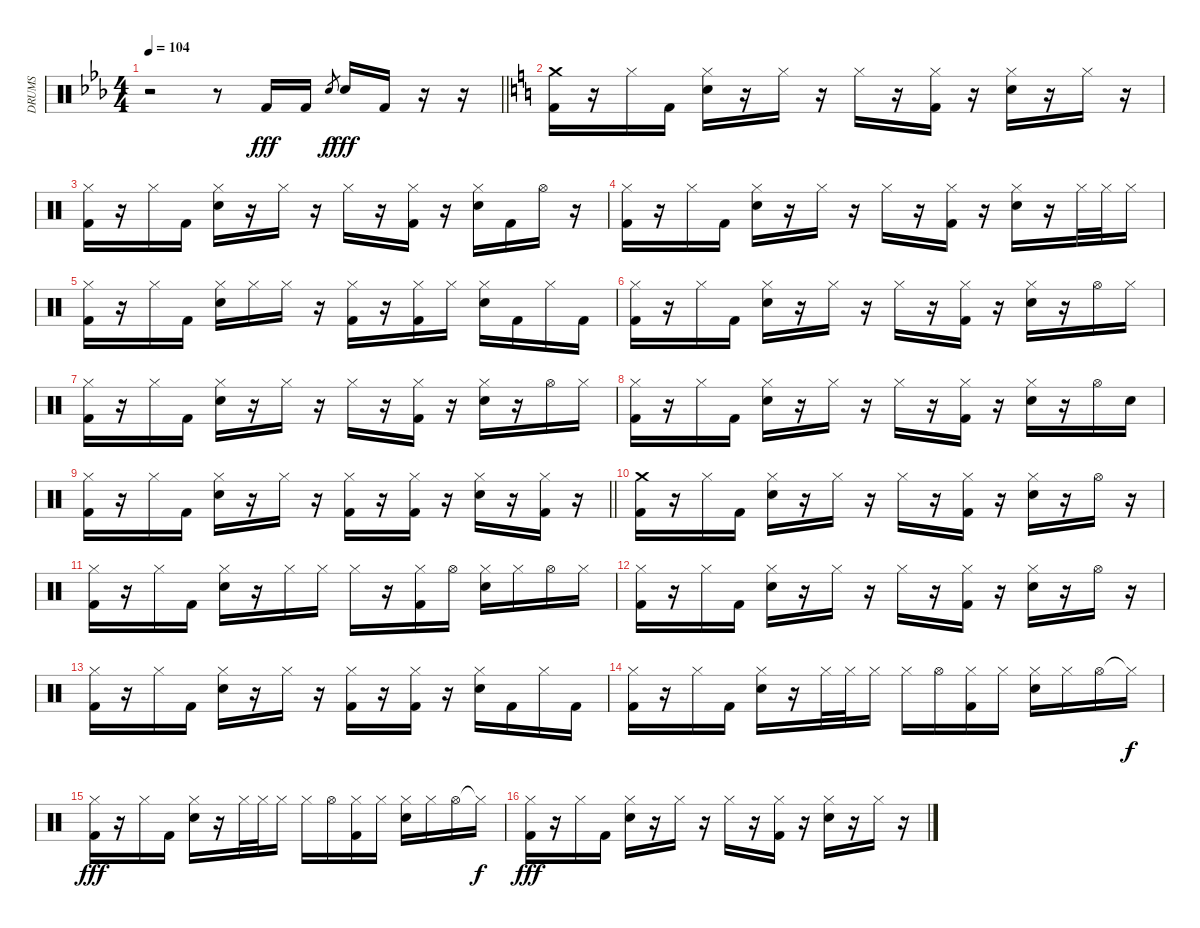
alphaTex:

\track ("DRUMS" "DRUMS") {instrument percussion}
\staff {score}
\articulation defaults
\ts (4 4)
\tempo 104
\clef neutral
\barLineRight lightlight
\ks eb
r.2{dy fff} r.8 "Kick (hit) 2".16 "Kick (hit) 2".16 "Snare (hit) 2".8{gr dy f} "Snare (hit) 2".16{dy fff} "Kick (hit) 2".16 r.16 r.16 |
\section ("" "")
\ks c
("Crash medium (hit)" "Kick (hit) 2").16 r.16 "Hi-Hat (closed)".16 "Kick (hit) 2".16 ("Hi-Hat (closed)" "Snare (hit) 2").16 r.16 "Hi-Hat (closed)".16 r.16 "Hi-Hat (closed)".16 r.16 ("Hi-Hat (closed)" "Kick (hit) 2").16 r.16 ("Hi-Hat (closed)" "Snare (hit) 2").16 r.16 "Hi-Hat (closed)".16 r.16 |
("Hi-Hat (closed)" "Kick (hit) 2").16 r.16 "Hi-Hat (closed)".16 "Kick (hit) 2".16 ("Hi-Hat (closed)" "Snare (hit) 2").16 r.16 "Hi-Hat (closed)".16 r.16 "Hi-Hat (closed)".16 r.16 ("Hi-Hat (closed)" "Kick (hit) 2").16 r.16 ("Hi-Hat (closed)" "Snare (hit) 2").16 "Kick (hit) 2".16 "Hi-Hat (open)".16 r.16 |
("Hi-Hat (closed)" "Kick (hit) 2").16 r.16 "Hi-Hat (closed)".16 "Kick (hit) 2".16 ("Hi-Hat (closed)" "Snare (hit) 2").16 r.16 "Hi-Hat (closed)".16 r.16 "Hi-Hat (closed)".16 r.16 ("Hi-Hat (closed)" "Kick (hit) 2").16 r.16 ("Hi-Hat (closed)" "Snare (hit) 2").16 r.16 "Hi-Hat (closed)".32 "Hi-Hat (closed)".32 "Hi-Hat (closed)".16 |
("Hi-Hat (closed)" "Kick (hit) 2").16 r.16 "Hi-Hat (closed)".16 "Kick (hit) 2".16 ("Hi-Hat (closed)" "Snare (hit) 2").16 "Hi-Hat (closed)".16 "Hi-Hat (closed)".16 r.16 ("Hi-Hat (closed)" "Kick (hit) 2").16 r.16 ("Hi-Hat (closed)" "Kick (hit) 2").16 "Hi-Hat (closed)".16 ("Hi-Hat (closed)" "Snare (hit) 2").16 "Kick (hit) 2".16 "Hi-Hat (closed)".16 "Kick (hit) 2".16 |
("Hi-Hat (closed)" "Kick (hit) 2").16 r.16 "Hi-Hat (closed)".16 "Kick (hit) 2".16 ("Hi-Hat (closed)" "Snare (hit) 2").16 r.16 "Hi-Hat (closed)".16 r.16 "Hi-Hat (closed)".16 r.16 ("Hi-Hat (closed)" "Kick (hit) 2").16 r.16 ("Hi-Hat (closed)" "Snare (hit) 2").16 r.16 "Hi-Hat (open)".16 "Hi-Hat (closed)".16 |
("Hi-Hat (closed)" "Kick (hit) 2").16 r.16 "Hi-Hat (closed)".16 "Kick (hit) 2".16 ("Hi-Hat (closed)" "Snare (hit) 2").16 r.16 "Hi-Hat (closed)".16 r.16 "Hi-Hat (closed)".16 r.16 ("Hi-Hat (closed)" "Kick (hit) 2").16 r.16 ("Hi-Hat (closed)" "Snare (hit) 2").16 r.16 "Hi-Hat (open)".16 "Hi-Hat (closed)".16 |
("Hi-Hat (closed)" "Kick (hit) 2").16 r.16 "Hi-Hat (closed)".16 "Kick (hit) 2".16 ("Hi-Hat (closed)" "Snare (hit) 2").16 r.16 "Hi-Hat (closed)".16 r.16 "Hi-Hat (closed)".16 r.16 ("Hi-Hat (closed)" "Kick (hit) 2").16 r.16 ("Hi-Hat (closed)" "Snare (hit) 2").16 r.16 "Hi-Hat (open)".16 "Snare (hit) 2".16 |
\barLineRight lightlight
("Hi-Hat (closed)" "Kick (hit) 2").16 r.16 "Hi-Hat (closed)".16 "Kick (hit) 2".16 ("Hi-Hat (closed)" "Snare (hit) 2").16 r.16 "Hi-Hat (closed)".16 r.16 ("Hi-Hat (closed)" "Kick (hit) 2").16 r.16 ("Hi-Hat (closed)" "Kick (hit) 2").16 r.16 ("Hi-Hat (closed)" "Snare (hit) 2").16 r.16 ("Hi-Hat (closed)" "Kick (hit) 2").16 r.16 |
\section ("" "")
("Crash medium (hit)" "Kick (hit) 2").16 r.16 "Hi-Hat (closed)".16 "Kick (hit) 2".16 ("Hi-Hat (closed)" "Snare (hit) 2").16 r.16 "Hi-Hat (closed)".16 r.16 "Hi-Hat (closed)".16 r.16 ("Hi-Hat (closed)" "Kick (hit) 2").16 r.16 ("Hi-Hat (closed)" "Snare (hit) 2").16 r.16 "Hi-Hat (open)".16 r.16 |
("Hi-Hat (closed)" "Kick (hit) 2").16 r.16 "Hi-Hat (closed)".16 "Kick (hit) 2".16 ("Hi-Hat (closed)" "Snare (hit) 2").16 r.16 "Hi-Hat (closed)".16 "Hi-Hat (closed)".16 "Hi-Hat (closed)".16 r.16 ("Hi-Hat (closed)" "Kick (hit) 2").16 "Hi-Hat (open)".16 ("Hi-Hat (closed)" "Snare (hit) 2").16 "Hi-Hat (closed)".16 "Hi-Hat (open)".16 "Hi-Hat (closed)".16 |
("Hi-Hat (closed)" "Kick (hit) 2").16 r.16 "Hi-Hat (closed)".16 "Kick (hit) 2".16 ("Hi-Hat (closed)" "Snare (hit) 2").16 r.16 "Hi-Hat (closed)".16 r.16 "Hi-Hat (closed)".16 r.16 ("Hi-Hat (closed)" "Kick (hit) 2").16 r.16 ("Hi-Hat (closed)" "Snare (hit) 2").16 r.16 "Hi-Hat (open)".16 r.16 |
("Hi-Hat (closed)" "Kick (hit) 2").16 r.16 "Hi-Hat (closed)".16 "Kick (hit) 2".16 ("Hi-Hat (closed)" "Snare (hit) 2").16 r.16 "Hi-Hat (closed)".16 r.16 ("Hi-Hat (closed)" "Kick (hit) 2").16 r.16 ("Hi-Hat (closed)" "Kick (hit) 2").16 r.16 ("Hi-Hat (closed)" "Snare (hit) 2").16 "Kick (hit) 2".16 "Hi-Hat (closed)".16 "Kick (hit) 2".16 |
("Hi-Hat (closed)" "Kick (hit) 2").16 r.16 "Hi-Hat (closed)".16 "Kick (hit) 2".16 ("Hi-Hat (closed)" "Snare (hit) 2").16 r.16 "Hi-Hat (closed)".32 "Hi-Hat (closed)".32 "Hi-Hat (closed)".16 "Hi-Hat (closed)".16 "Hi-Hat (open)".16 ("Hi-Hat (closed)" "Kick (hit) 2").16 "Hi-Hat (closed)".16 ("Hi-Hat (closed)" "Snare (hit) 2").16 "Hi-Hat (closed)".16 "Hi-Hat (open)".16 "Hi-Hat (closed)"{t}.16{dy f} |
("Hi-Hat (closed)" "Kick (hit) 2").16{dy fff} r.16 "Hi-Hat (closed)".16 "Kick (hit) 2".16 ("Hi-Hat (closed)" "Snare (hit) 2").16 r.16 "Hi-Hat (closed)".32 "Hi-Hat (closed)".32 "Hi-Hat (closed)".16 "Hi-Hat (closed)".16 "Hi-Hat (open)".16 ("Hi-Hat (closed)" "Kick (hit) 2").16 "Hi-Hat (closed)".16 ("Hi-Hat (closed)" "Snare (hit) 2").16 "Hi-Hat (closed)".16 "Hi-Hat (open)".16 "Hi-Hat (closed)"{t}.16{dy f} |
("Hi-Hat (closed)" "Kick (hit) 2").16{dy fff} r.16 "Hi-Hat (closed)".16 "Kick (hit) 2".16 ("Hi-Hat (closed)" "Snare (hit) 2").16 r.16 "Hi-Hat (closed)".16 r.16 "Hi-Hat (closed)".16 r.16 ("Hi-Hat (closed)" "Kick (hit) 2").16 r.16 ("Hi-Hat (closed)" "Snare (hit) 2").16 r.16 "Hi-Hat (closed)".16 r.16
